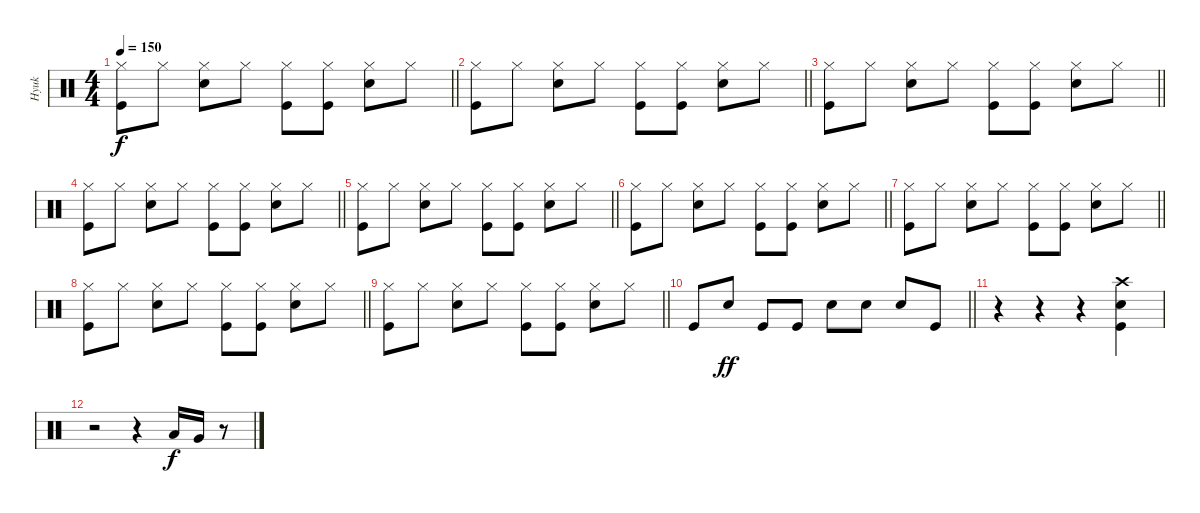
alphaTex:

\track ("Hyuk" "Hyuk") {instrument percussion}
\staff {score}
\articulation defaults
\ts (4 4)
\tempo 150
\clef neutral
\barLineRight lightlight
\ks c
("Hi-Hat (closed)" "Kick (hit)").8{dy f} "Hi-Hat (closed)".8 ("Hi-Hat (closed)" "Snare (hit) 2").8 "Hi-Hat (closed)".8 ("Hi-Hat (closed)" "Kick (hit)").8 ("Hi-Hat (closed)" "Kick (hit)").8 ("Hi-Hat (closed)" "Snare (hit) 2").8 "Hi-Hat (closed)".8 |
\barLineRight lightlight
("Hi-Hat (closed)" "Kick (hit)").8 "Hi-Hat (closed)".8 ("Hi-Hat (closed)" "Snare (hit) 2").8 "Hi-Hat (closed)".8 ("Hi-Hat (closed)" "Kick (hit)").8 ("Hi-Hat (closed)" "Kick (hit)").8 ("Hi-Hat (closed)" "Snare (hit) 2").8 "Hi-Hat (closed)".8 |
\barLineRight lightlight
("Hi-Hat (closed)" "Kick (hit)").8 "Hi-Hat (closed)".8 ("Hi-Hat (closed)" "Snare (hit) 2").8 "Hi-Hat (closed)".8 ("Hi-Hat (closed)" "Kick (hit)").8 ("Hi-Hat (closed)" "Kick (hit)").8 ("Hi-Hat (closed)" "Snare (hit) 2").8 "Hi-Hat (closed)".8 |
\barLineRight lightlight
("Hi-Hat (closed)" "Kick (hit)").8 "Hi-Hat (closed)".8 ("Hi-Hat (closed)" "Snare (hit) 2").8 "Hi-Hat (closed)".8 ("Hi-Hat (closed)" "Kick (hit)").8 ("Hi-Hat (closed)" "Kick (hit)").8 ("Hi-Hat (closed)" "Snare (hit) 2").8 "Hi-Hat (closed)".8 |
\barLineRight lightlight
("Hi-Hat (closed)" "Kick (hit)").8 "Hi-Hat (closed)".8 ("Hi-Hat (closed)" "Snare (hit) 2").8 "Hi-Hat (closed)".8 ("Hi-Hat (closed)" "Kick (hit)").8 ("Hi-Hat (closed)" "Kick (hit)").8 ("Hi-Hat (closed)" "Snare (hit) 2").8 "Hi-Hat (closed)".8 |
\barLineRight lightlight
("Hi-Hat (closed)" "Kick (hit)").8 "Hi-Hat (closed)".8 ("Hi-Hat (closed)" "Snare (hit) 2").8 "Hi-Hat (closed)".8 ("Hi-Hat (closed)" "Kick (hit)").8 ("Hi-Hat (closed)" "Kick (hit)").8 ("Hi-Hat (closed)" "Snare (hit) 2").8 "Hi-Hat (closed)".8 |
\barLineRight lightlight
("Hi-Hat (closed)" "Kick (hit)").8 "Hi-Hat (closed)".8 ("Hi-Hat (closed)" "Snare (hit) 2").8 "Hi-Hat (closed)".8 ("Hi-Hat (closed)" "Kick (hit)").8 ("Hi-Hat (closed)" "Kick (hit)").8 ("Hi-Hat (closed)" "Snare (hit) 2").8 "Hi-Hat (closed)".8 |
\barLineRight lightlight
("Hi-Hat (closed)" "Kick (hit)").8 "Hi-Hat (closed)".8 ("Hi-Hat (closed)" "Snare (hit) 2").8 "Hi-Hat (closed)".8 ("Hi-Hat (closed)" "Kick (hit)").8 ("Hi-Hat (closed)" "Kick (hit)").8 ("Hi-Hat (closed)" "Snare (hit) 2").8 "Hi-Hat (closed)".8 |
\barLineRight lightlight
("Hi-Hat (closed)" "Kick (hit)").8 "Hi-Hat (closed)".8 ("Hi-Hat (closed)" "Snare (hit) 2").8 "Hi-Hat (closed)".8 ("Hi-Hat (closed)" "Kick (hit)").8 ("Hi-Hat (closed)" "Kick (hit)").8 ("Hi-Hat (closed)" "Snare (hit) 2").8 "Hi-Hat (closed)".8 |
\barLineRight lightlight "Kick (hit)".8 "Snare (hit) 2".8{dy ff} "Kick (hit)".8 "Kick (hit)".8 "Snare (hit) 2".8 "Snare (hit) 2".8 "Snare (hit) 2".8 "Kick (hit)".8
|
r.4 r.4 r.4 ("Crash high (hit)" "Snare (hit) 2" "Kick (hit)").4 |
r.2 r.4 "Low Tom (hit)".16{dy f} "Very Low Tom (hit)".16 r.8
